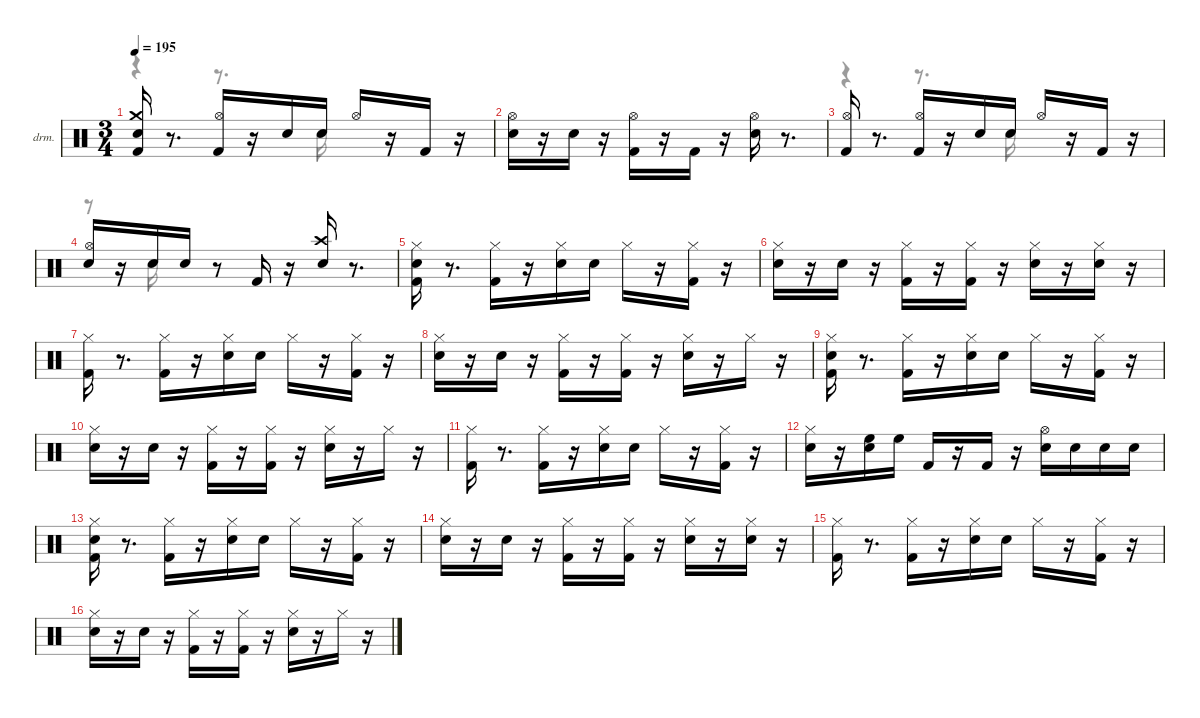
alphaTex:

\hideDynamics
\bracketExtendMode nobrackets
\firstSystemTrackNameOrientation horizontal
\otherSystemsTrackNameOrientation horizontal
\track ("EZdrummer 3" "drm.") {instrument percussion}
\staff {score}
\articulation defaults
\voice
\ts (3 4)
\tempo 195
\clef neutral
\ks aminor
("Kick (hit) 2" "Snare (hit) 2" "Crash medium (hit)").16{dy ff beam Up} r.8{d beam Up} ("Kick (hit) 2" "Hi-Hat (open)"{acc #}).16{dy mf beam Up} r.16{beam Up} "Snare (hit) 2".16{dy f beam Up} "Snare (hit) 2".16{dy ppp beam Up} "Hi-Hat (open)"{acc #}.16{dy mf beam Up} r.16{beam Up} "Kick (hit) 2".16{dy f beam Up} r.16{beam Up} |
("Snare (hit) 2" "Hi-Hat (open)"{acc #}).16{dy ff beam Down} r.16{beam Down} "Snare (hit) 2".16{dy ppp beam Down} r.16{beam Down} ("Kick (hit) 2" "Hi-Hat (open)"{acc #}).16{beam Down} r.16{beam Down} "Kick (hit) 2".16{dy ff beam Up} r.16{beam Up} ("Snare (hit) 2" "Hi-Hat (open)"{acc #}).16{dy f beam Down} r.8{d beam Down} |
("Kick (hit) 2" "Hi-Hat (open)"{acc #}).16{dy ff beam Up} r.8{d beam Up} ("Kick (hit) 2" "Hi-Hat (open)"{acc #}).16{dy mf beam Up} r.16{beam Up} "Snare (hit) 2".16{dy f beam Up} "Snare (hit) 2".16{dy ppp beam Up} "Hi-Hat (open)"{acc #}.16{dy ff beam Up} r.16{beam Up} "Kick (hit) 2".16{dy f beam Up} r.16{beam Up} |
("Snare (hit) 2" "Hi-Hat (open)"{acc #}).16{dy ff beam Up} r.16{beam Up} "Snare (hit) 2".16{dy f beam Up} "Snare (hit) 2".16{dy mp beam Up} r.8{beam Up} "Kick (hit) 2".16{dy ff beam Up} r.16{beam Up} ("Snare (hit) 2" "Crash high (hit)"{acc #}).16{dy fff beam Up} r.8{d beam Up} |
("Snare (hit) 2" "Hi-Hat (closed)"{acc #} "Kick (hit) 2").16{beam Down} r.8{d beam Down} ("Kick (hit) 2" "Hi-Hat (closed)"{acc #}).16{dy mp beam Down} r.16{beam Down} ("Snare (hit) 2" "Hi-Hat (closed)"{acc #}).16{dy f beam Down} "Snare (hit) 2".16{dy pp beam Down} "Hi-Hat (closed)"{acc #}.16{dy ppp beam Down} r.16{beam Down} ("Kick (hit) 2" "Hi-Hat (closed)"{acc #}).16{beam Down} r.16{beam Down} |
("Snare (hit) 2" "Hi-Hat (closed)"{acc #}).16{dy ff beam Down} r.16{beam Down} "Snare (hit) 2".16{dy ppp beam Down} r.16{beam Down} ("Kick (hit) 2" "Hi-Hat (closed)"{acc #}).16{beam Down} r.16{beam Down} ("Kick (hit) 2" "Hi-Hat (closed)"{acc #}).16{dy ff beam Down} r.16{beam Down} ("Snare (hit) 2" "Hi-Hat (closed)"{acc #}).16{dy f beam Down} r.16{beam Down} ("Snare (hit) 2" "Hi-Hat (closed)"{acc #}).16{dy ppp beam Down} r.16{beam Down} |
("Kick (hit) 2" "Hi-Hat (closed)"{acc #}).16{dy ff beam Down} r.8{d beam Down} ("Kick (hit) 2" "Hi-Hat (closed)"{acc #}).16{dy mf beam Down} r.16{beam Down} ("Snare (hit) 2" "Hi-Hat (closed)"{acc #}).16{dy f beam Down} "Snare (hit) 2".16{dy ppp beam Down} "Hi-Hat (closed)"{acc #}.16{beam Down} r.16{beam Down} ("Kick (hit) 2" "Hi-Hat (closed)"{acc #}).16{dy f beam Down} r.16{beam Down} |
("Snare (hit) 2" "Hi-Hat (closed)"{acc #}).16{dy ff beam Down} r.16{beam Down} "Snare (hit) 2".16{dy ppp beam Down} r.16{beam Down} ("Kick (hit) 2" "Hi-Hat (closed)"{acc #}).16{beam Down} r.16{beam Down} ("Kick (hit) 2" "Hi-Hat (closed)"{acc #}).16{beam Down} r.16{beam Down} ("Snare (hit) 2" "Hi-Hat (closed)"{acc #}).16{dy f beam Down} r.16{beam Down} "Hi-Hat (closed)"{acc #}.16{dy ppp beam Down} r.16{beam Down} |
("Kick (hit) 2" "Snare (hit) 2" "Hi-Hat (closed)"{acc #}).16{dy fff beam Down} r.8{d beam Down} ("Kick (hit) 2" "Hi-Hat (closed)"{acc #}).16{dy mp beam Down} r.16{beam Down} ("Snare (hit) 2" "Hi-Hat (closed)"{acc #}).16{dy f beam Down} "Snare (hit) 2".16{dy pp beam Down} "Hi-Hat (closed)"{acc #}.16{dy ppp beam Down} r.16{beam Down} ("Kick (hit) 2" "Hi-Hat (closed)"{acc #}).16{dy f beam Down} r.16{beam Down} |
("Snare (hit) 2" "Hi-Hat (closed)"{acc #}).16{dy ff beam Down} r.16{beam Down} "Snare (hit) 2".16{dy ppp beam Down} r.16{beam Down} ("Kick (hit) 2" "Hi-Hat (closed)"{acc #}).16{dy p beam Down} r.16{beam Down} ("Kick (hit) 2" "Hi-Hat (closed)"{acc #}).16{dy ff beam Down} r.16{beam Down} ("Snare (hit) 2" "Hi-Hat (closed)"{acc #}).16{dy fff beam Down} r.16{beam Down} "Hi-Hat (closed)"{acc #}.16{dy ppp beam Down} r.16{beam Down} |
("Kick (hit) 2" "Hi-Hat (closed)"{acc #}).16{dy fff beam Down} r.8{d beam Down} ("Kick (hit) 2" "Hi-Hat (closed)"{acc #}).16{dy mp beam Down} r.16{beam Down} ("Snare (hit) 2" "Hi-Hat (closed)"{acc #}).16{dy f beam Down} "Snare (hit) 2".16{dy pp beam Down} "Hi-Hat (closed)"{acc #}.16{dy ppp beam Down} r.16{beam Down} ("Kick (hit) 2" "Hi-Hat (closed)"{acc #}).16{dy f beam Down} r.16{beam Down} |
("Snare (hit) 2" "Hi-Hat (closed)"{acc #}).16{dy ff beam Down} r.16{beam Down} ("Snare (hit) 2" "High Floor Tom (hit)").16{dy f beam Down} "High Floor Tom (hit)".16{dy mf beam Down} "Kick (hit) 2".16{beam Up} r.16{beam Up} "Kick (hit) 2".16{dy ff beam Up} r.16{beam Up} ("Snare (hit) 2" "Hi-Hat (open)"{acc #}).16{beam Down} "Snare (hit) 2".16{dy pp beam Down} "Snare (hit) 2".16{dy ppp beam Down} "Snare (hit) 2".16{beam Down} |
("Kick (hit) 2" "Snare (hit) 2" "Hi-Hat (closed)"{acc #}).16{dy ff beam Down} r.8{d beam Down} ("Kick (hit) 2" "Hi-Hat (closed)"{acc #}).16{dy mf beam Down} r.16{beam Down} ("Snare (hit) 2" "Hi-Hat (closed)"{acc #}).16{dy f beam Down} "Snare (hit) 2".16{dy pp beam Down} "Hi-Hat (closed)"{acc #}.16{dy ppp beam Down} r.16{beam Down} ("Kick (hit) 2" "Hi-Hat (closed)"{acc #}).16{beam Down} r.16{beam Down} |
("Snare (hit) 2" "Hi-Hat (closed)"{acc #}).16{dy ff beam Down} r.16{beam Down} "Snare (hit) 2".16{dy ppp beam Down} r.16{beam Down} ("Kick (hit) 2" "Hi-Hat (closed)"{acc #}).16{dy p beam Down} r.16{beam Down} ("Kick (hit) 2" "Hi-Hat (closed)"{acc #}).16{dy ff beam Down} r.16{beam Down} ("Snare (hit) 2" "Hi-Hat (closed)"{acc #}).16{dy f beam Down} r.16{beam Down} ("Snare (hit) 2" "Hi-Hat (closed)"{acc #}).16{dy pp beam Down} r.16{beam Down} |
("Kick (hit) 2" "Hi-Hat (closed)"{acc #}).16{dy ff beam Down} r.8{d beam Down} ("Kick (hit) 2" "Hi-Hat (closed)"{acc #}).16{dy mp beam Down} r.16{beam Down} ("Snare (hit) 2" "Hi-Hat (closed)"{acc #}).16{dy f beam Down} "Snare (hit) 2".16{dy pp beam Down} "Hi-Hat (closed)"{acc #}.16{dy ppp beam Down} r.16{beam Down} ("Kick (hit) 2" "Hi-Hat (closed)"{acc #}).16{dy f beam Down} r.16{beam Down} |
("Snare (hit) 2" "Hi-Hat (closed)"{acc #}).16{dy ff beam Down} r.16{beam Down} "Snare (hit) 2".16{dy ppp beam Down} r.16{beam Down} ("Kick (hit) 2" "Hi-Hat (closed)"{acc #}).16{beam Down} r.16{beam Down} ("Kick (hit) 2" "Hi-Hat (closed)"{acc #}).16{dy ff beam Down} r.16{beam Down} ("Snare (hit) 2" "Hi-Hat (closed)"{acc #}).16{beam Down} r.16{beam Down} "Hi-Hat (closed)"{acc #}.16{dy ppp beam Down} r.16{beam Down}
\voice
\clef neutral
\ottava regular
\simile none
\ks aminor
r.4{dy pp beam Down} r.8{d beam Down} "Snare (hit) 2".16{beam Down} |
|
r.4{beam Down} r.8{d beam Down} "Snare (hit) 2".16{beam Down} |
r.8{beam Down} "Snare (hit) 2".16{dy ppp beam Down} |
|
|
|
|
|
|
|
|
|
|
|
